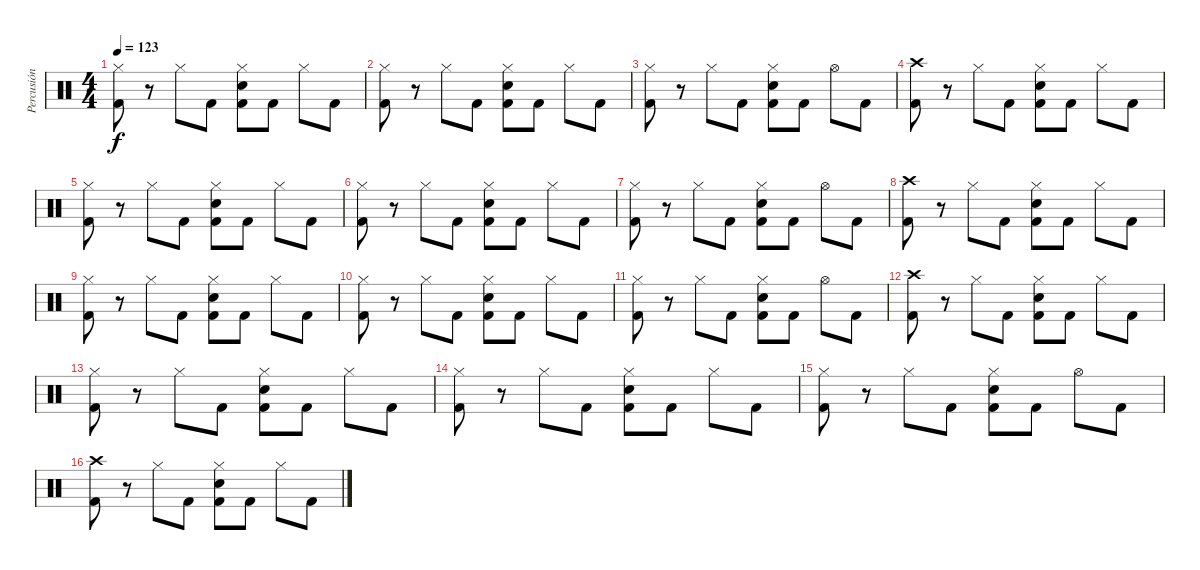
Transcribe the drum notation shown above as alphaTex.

\track ("Percusión" "Percusión") {instrument percussion}
\staff {score}
\articulation defaults
\ts (4 4)
\tempo 123
\clef neutral
\ks c
("Hi-Hat (closed)" "Kick (hit) 2").8{dy f} r.8 "Hi-Hat (closed)".8 "Kick (hit) 2".8 ("Hi-Hat (closed)" "Snare (hit) 2" "Kick (hit) 2").8 "Kick (hit) 2".8 "Hi-Hat (closed)".8 "Kick (hit) 2".8 |
("Hi-Hat (closed)" "Kick (hit) 2").8 r.8 "Hi-Hat (closed)".8 "Kick (hit) 2".8 ("Hi-Hat (closed)" "Snare (hit) 2" "Kick (hit) 2").8 "Kick (hit) 2".8 "Hi-Hat (closed)".8 "Kick (hit) 2".8 |
("Hi-Hat (closed)" "Kick (hit) 2").8 r.8 "Hi-Hat (closed)".8 "Kick (hit) 2".8 ("Hi-Hat (closed)" "Snare (hit) 2" "Kick (hit) 2").8 "Kick (hit) 2".8 "Hi-Hat (open)".8 "Kick (hit) 2".8 |
("Crash high (hit)" "Kick (hit) 2").8 r.8 "Hi-Hat (closed)".8 "Kick (hit) 2".8 ("Hi-Hat (closed)" "Snare (hit) 2" "Kick (hit) 2").8 "Kick (hit) 2".8 "Hi-Hat (closed)".8 "Kick (hit) 2".8 |
("Hi-Hat (closed)" "Kick (hit) 2").8 r.8 "Hi-Hat (closed)".8 "Kick (hit) 2".8 ("Hi-Hat (closed)" "Snare (hit) 2" "Kick (hit) 2").8 "Kick (hit) 2".8 "Hi-Hat (closed)".8 "Kick (hit) 2".8 |
("Hi-Hat (closed)" "Kick (hit) 2").8 r.8 "Hi-Hat (closed)".8 "Kick (hit) 2".8 ("Hi-Hat (closed)" "Snare (hit) 2" "Kick (hit) 2").8 "Kick (hit) 2".8 "Hi-Hat (closed)".8 "Kick (hit) 2".8 |
("Hi-Hat (closed)" "Kick (hit) 2").8 r.8 "Hi-Hat (closed)".8 "Kick (hit) 2".8 ("Hi-Hat (closed)" "Snare (hit) 2" "Kick (hit) 2").8 "Kick (hit) 2".8 "Hi-Hat (open)".8 "Kick (hit) 2".8 |
("Crash high (hit)" "Kick (hit) 2").8 r.8 "Hi-Hat (closed)".8 "Kick (hit) 2".8 ("Hi-Hat (closed)" "Snare (hit) 2" "Kick (hit) 2").8 "Kick (hit) 2".8 "Hi-Hat (closed)".8 "Kick (hit) 2".8 |
("Hi-Hat (closed)" "Kick (hit) 2").8 r.8 "Hi-Hat (closed)".8 "Kick (hit) 2".8 ("Hi-Hat (closed)" "Snare (hit) 2" "Kick (hit) 2").8 "Kick (hit) 2".8 "Hi-Hat (closed)".8 "Kick (hit) 2".8 |
("Hi-Hat (closed)" "Kick (hit) 2").8 r.8 "Hi-Hat (closed)".8 "Kick (hit) 2".8 ("Hi-Hat (closed)" "Snare (hit) 2" "Kick (hit) 2").8 "Kick (hit) 2".8 "Hi-Hat (closed)".8 "Kick (hit) 2".8 |
("Hi-Hat (closed)" "Kick (hit) 2").8 r.8 "Hi-Hat (closed)".8 "Kick (hit) 2".8 ("Hi-Hat (closed)" "Snare (hit) 2" "Kick (hit) 2").8 "Kick (hit) 2".8 "Hi-Hat (open)".8 "Kick (hit) 2".8 |
("Crash high (hit)" "Kick (hit) 2").8 r.8 "Hi-Hat (closed)".8 "Kick (hit) 2".8 ("Hi-Hat (closed)" "Snare (hit) 2" "Kick (hit) 2").8 "Kick (hit) 2".8 "Hi-Hat (closed)".8 "Kick (hit) 2".8 |
("Hi-Hat (closed)" "Kick (hit) 2").8 r.8 "Hi-Hat (closed)".8 "Kick (hit) 2".8 ("Hi-Hat (closed)" "Snare (hit) 2" "Kick (hit) 2").8 "Kick (hit) 2".8 "Hi-Hat (closed)".8 "Kick (hit) 2".8 |
("Hi-Hat (closed)" "Kick (hit) 2").8 r.8 "Hi-Hat (closed)".8 "Kick (hit) 2".8 ("Hi-Hat (closed)" "Snare (hit) 2" "Kick (hit) 2").8 "Kick (hit) 2".8 "Hi-Hat (closed)".8 "Kick (hit) 2".8 |
("Hi-Hat (closed)" "Kick (hit) 2").8 r.8 "Hi-Hat (closed)".8 "Kick (hit) 2".8 ("Hi-Hat (closed)" "Snare (hit) 2" "Kick (hit) 2").8 "Kick (hit) 2".8 "Hi-Hat (open)".8 "Kick (hit) 2".8 |
("Crash high (hit)" "Kick (hit) 2").8 r.8 "Hi-Hat (closed)".8 "Kick (hit) 2".8 ("Hi-Hat (closed)" "Snare (hit) 2" "Kick (hit) 2").8 "Kick (hit) 2".8 "Hi-Hat (closed)".8 "Kick (hit) 2".8
